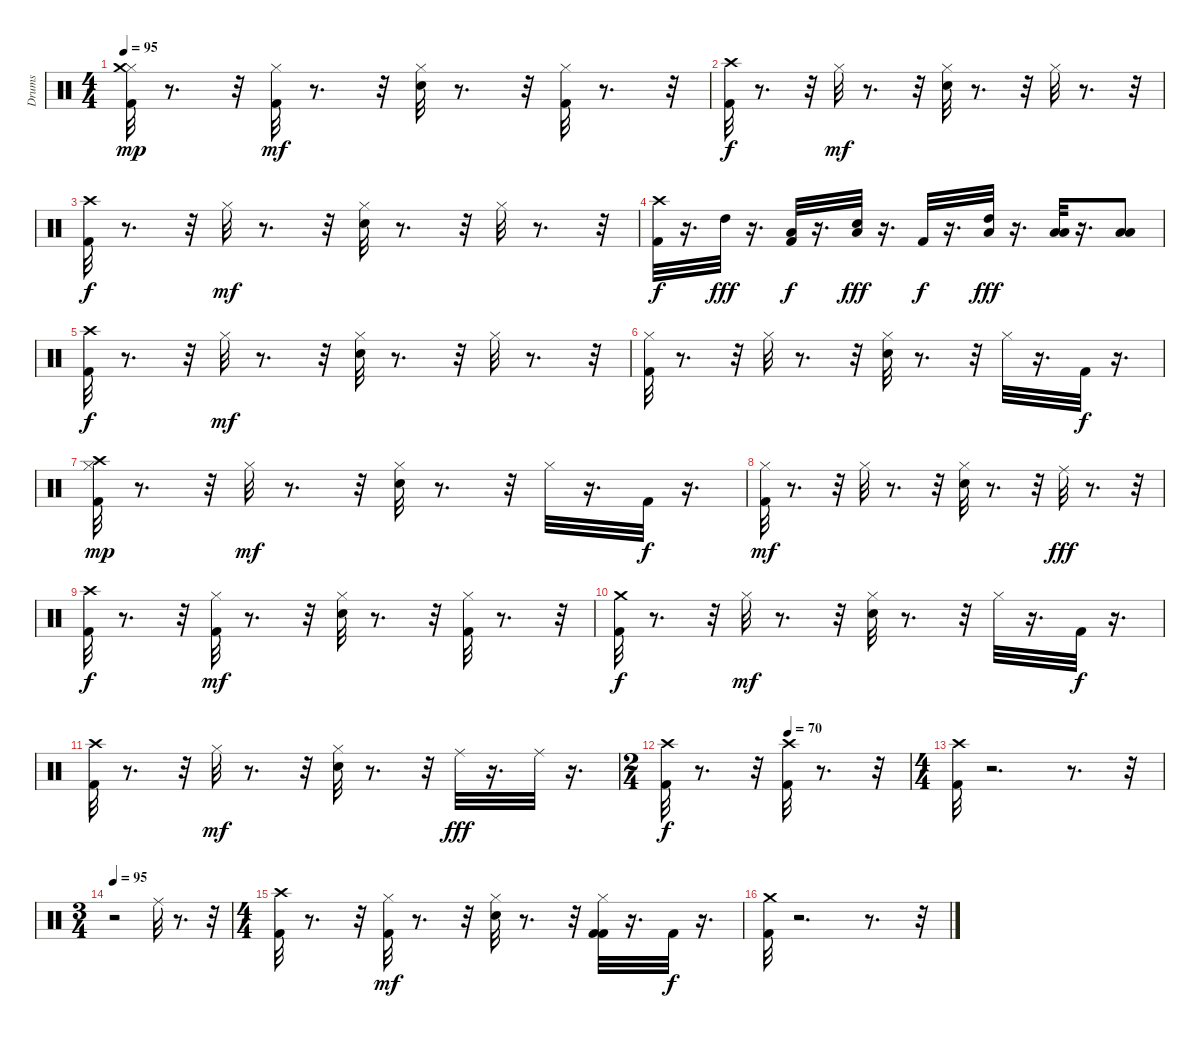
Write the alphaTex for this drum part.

\track ("Drums" "Drums") {instrument percussion}
\staff {score}
\articulation defaults
\ts (4 4)
\tempo 95
\clef neutral
\ks c
("Hi-Hat (closed)" "Kick (hit) 2" "Crash medium (hit)").32{dy mp} r.8{d} r.32 ("Kick (hit) 2" "Hi-Hat (closed)").32{dy mf} r.8{d} r.32 ("Electric Snare (hit)" "Hi-Hat (closed)").32 r.8{d} r.32 ("Kick (hit) 2" "Hi-Hat (closed)").32 r.8{d} r.32 |
("Crash high (hit)" "Kick (hit) 2").32{dy f} r.8{d} r.32 "Hi-Hat (closed)".32{dy mf} r.8{d} r.32 ("Electric Snare (hit)" "Hi-Hat (closed)").32 r.8{d} r.32 "Hi-Hat (closed)".32 r.8{d} r.32 |
("Crash high (hit)" "Kick (hit) 2").32{dy f} r.8{d} r.32 "Hi-Hat (closed)".32{dy mf} r.8{d} r.32 ("Electric Snare (hit)" "Hi-Hat (closed)").32 r.8{d} r.32 "Hi-Hat (closed)".32 r.8{d} r.32 |
("Crash high (hit)" "Kick (hit) 2").32{dy f} r.16{d} "High Tom (hit)".32{dy fff} r.16{d} ("Low Floor Tom (hit)" "Kick (hit) 2").32{dy f} r.16{d} ("Electric Snare (hit)" "Low Tom (hit)").32{dy fff} r.16{d} "Kick (hit) 2".32{dy f} r.16{d} ("High Tom (hit)" "Low Tom (hit)").32{dy fff} r.16{d} ("Low Tom (hit)" "Low Floor Tom (hit)").32 r.16{d} ("Low Floor Tom (hit)" "Low Floor Tom (hit)").8 |
("Crash high (hit)" "Kick (hit) 2").32{dy f} r.8{d} r.32 "Hi-Hat (closed)".32{dy mf} r.8{d} r.32 ("Electric Snare (hit)" "Hi-Hat (closed)").32 r.8{d} r.32 "Hi-Hat (closed)".32 r.8{d} r.32 |
("Hi-Hat (closed)" "Kick (hit) 2").32 r.8{d} r.32 "Hi-Hat (closed)".32 r.8{d} r.32 ("Electric Snare (hit)" "Hi-Hat (closed)").32 r.8{d} r.32 "Hi-Hat (closed)".32 r.16{d} "Kick (hit) 2".32{dy f} r.16{d} |
("Hi-Hat (closed)" "Kick (hit) 2" "Crash high (hit)").32{dy mp} r.8{d} r.32 "Hi-Hat (closed)".32{dy mf} r.8{d} r.32 ("Electric Snare (hit)" "Hi-Hat (closed)").32 r.8{d} r.32 "Hi-Hat (closed)".32 r.16{d} "Kick (hit) 2".32{dy f} r.16{d} |
("Hi-Hat (closed)" "Kick (hit) 2").32{dy mf} r.8{d} r.32 "Hi-Hat (closed)".32 r.8{d} r.32 ("Electric Snare (hit)" "Hi-Hat (closed)").32 r.8{d} r.32 "Ride (middle)".32{dy fff} r.8{d} r.32 |
("Crash high (hit)" "Kick (hit) 2").32{dy f} r.8{d} r.32 ("Kick (hit) 2" "Hi-Hat (closed)").32{dy mf} r.8{d} r.32 ("Electric Snare (hit)" "Hi-Hat (closed)").32 r.8{d} r.32 ("Kick (hit) 2" "Hi-Hat (closed)").32 r.8{d} r.32 |
("Crash medium (hit)" "Kick (hit) 2").32{dy f} r.8{d} r.32 "Hi-Hat (closed)".32{dy mf} r.8{d} r.32 ("Electric Snare (hit)" "Hi-Hat (closed)").32 r.8{d} r.32 "Hi-Hat (closed)".32 r.16{d} "Kick (hit) 2".32{dy f} r.16{d} |
("Crash high (hit)" "Kick (hit) 2").32 r.8{d} r.32 "Hi-Hat (closed)".32{dy mf} r.8{d} r.32 ("Electric Snare (hit)" "Hi-Hat (closed)").32 r.8{d} r.32 "Ride (middle)".32{dy fff} r.16{d} "Ride (middle)".32 r.16{d} |
\ts (2 4)
\tempo (70 0.5)
("Crash high (hit)" "Kick (hit) 2").32{dy f} r.8{d} r.32 ("Crash high (hit)" "Kick (hit) 2").32 r.8{d} r.32 |
\ts (4 4)
("Crash high (hit)" "Kick (hit) 2").32 r.2{d} r.8{d} r.32 |
\ts (3 4)
\tempo 95
r.2 "Ride (middle)".32 r.8{d} r.32 |
\ts (4 4)
("Crash high (hit)" "Kick (hit) 2").32 r.8{d} r.32 ("Kick (hit) 2" "Hi-Hat (closed)").32{dy mf} r.8{d} r.32 ("Electric Snare (hit)" "Hi-Hat (closed)").32 r.8{d} r.32 ("Kick (hit) 2" "Kick (hit) 2" "Hi-Hat (closed)").32 r.16{d} "Kick (hit) 2".32{dy f} r.16{d} |
("Crash medium (hit)" "Kick (hit) 2").32 r.2{d} r.8{d} r.32
